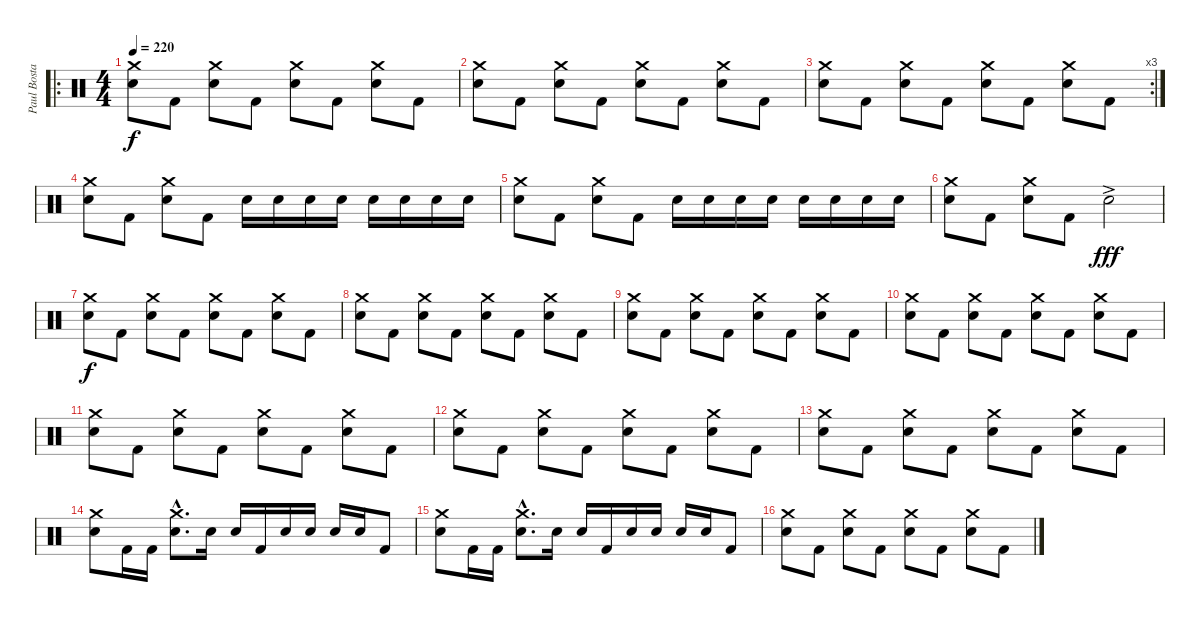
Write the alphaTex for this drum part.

\track ("Paul Bostaph" "Paul Bosta") {instrument percussion}
\staff {score}
\articulation defaults
\ro
\ts (4 4)
\tempo 220
\clef neutral
\ks c
("Snare (hit) 2" "Crash medium (hit)").8{dy f} "Kick (hit) 2".8 ("Snare (hit) 2" "Crash medium (hit)").8 "Kick (hit) 2".8 ("Snare (hit) 2" "Crash medium (hit)").8 "Kick (hit) 2".8 ("Snare (hit) 2" "Crash medium (hit)").8 "Kick (hit) 2".8 |
("Snare (hit) 2" "Crash medium (hit)").8 "Kick (hit) 2".8 ("Snare (hit) 2" "Crash medium (hit)").8 "Kick (hit) 2".8 ("Snare (hit) 2" "Crash medium (hit)").8 "Kick (hit) 2".8 ("Snare (hit) 2" "Crash medium (hit)").8 "Kick (hit) 2".8 |
\rc 3
("Snare (hit) 2" "Crash medium (hit)").8 "Kick (hit) 2".8 ("Snare (hit) 2" "Crash medium (hit)").8 "Kick (hit) 2".8 ("Snare (hit) 2" "Crash medium (hit)").8 "Kick (hit) 2".8 ("Snare (hit) 2" "Crash medium (hit)").8 "Kick (hit) 2".8 |
("Snare (hit) 2" "Crash medium (hit)").8 "Kick (hit) 2".8 ("Snare (hit) 2" "Crash medium (hit)").8 "Kick (hit) 2".8 "Snare (hit) 2".16 "Snare (hit) 2".16 "Snare (hit) 2".16 "Snare (hit) 2".16 "Snare (hit) 2".16 "Snare (hit) 2".16 "Snare (hit) 2".16 "Snare (hit) 2".16 |
("Snare (hit) 2" "Crash medium (hit)").8 "Kick (hit) 2".8 ("Snare (hit) 2" "Crash medium (hit)").8 "Kick (hit) 2".8 "Snare (hit) 2".16 "Snare (hit) 2".16 "Snare (hit) 2".16 "Snare (hit) 2".16 "Snare (hit) 2".16 "Snare (hit) 2".16 "Snare (hit) 2".16 "Snare (hit) 2".16 |
("Snare (hit) 2" "Crash medium (hit)").8 "Kick (hit) 2".8 ("Snare (hit) 2" "Crash medium (hit)").8 "Kick (hit) 2".8 "Snare (hit) 2"{ac}.2{dy fff} |
("Snare (hit) 2" "Crash medium (hit)").8{dy f} "Kick (hit) 2".8 ("Snare (hit) 2" "Crash medium (hit)").8 "Kick (hit) 2".8 ("Snare (hit) 2" "Crash medium (hit)").8 "Kick (hit) 2".8 ("Snare (hit) 2" "Crash medium (hit)").8 "Kick (hit) 2".8 |
("Snare (hit) 2" "Crash medium (hit)").8 "Kick (hit) 2".8 ("Snare (hit) 2" "Crash medium (hit)").8 "Kick (hit) 2".8 ("Snare (hit) 2" "Crash medium (hit)").8 "Kick (hit) 2".8 ("Snare (hit) 2" "Crash medium (hit)").8 "Kick (hit) 2".8 |
("Snare (hit) 2" "Crash medium (hit)").8 "Kick (hit) 2".8 ("Snare (hit) 2" "Crash medium (hit)").8 "Kick (hit) 2".8 ("Snare (hit) 2" "Crash medium (hit)").8 "Kick (hit) 2".8 ("Snare (hit) 2" "Crash medium (hit)").8 "Kick (hit) 2".8 |
("Snare (hit) 2" "Crash medium (hit)").8 "Kick (hit) 2".8 ("Snare (hit) 2" "Crash medium (hit)").8 "Kick (hit) 2".8 ("Snare (hit) 2" "Crash medium (hit)").8 "Kick (hit) 2".8 ("Snare (hit) 2" "Crash medium (hit)").8 "Kick (hit) 2".8 |
("Snare (hit) 2" "Crash medium (hit)").8 "Kick (hit) 2".8 ("Snare (hit) 2" "Crash medium (hit)").8 "Kick (hit) 2".8 ("Snare (hit) 2" "Crash medium (hit)").8 "Kick (hit) 2".8 ("Snare (hit) 2" "Crash medium (hit)").8 "Kick (hit) 2".8 |
("Snare (hit) 2" "Crash medium (hit)").8 "Kick (hit) 2".8 ("Snare (hit) 2" "Crash medium (hit)").8 "Kick (hit) 2".8 ("Snare (hit) 2" "Crash medium (hit)").8 "Kick (hit) 2".8 ("Snare (hit) 2" "Crash medium (hit)").8 "Kick (hit) 2".8 |
("Snare (hit) 2" "Crash medium (hit)").8 "Kick (hit) 2".8 ("Snare (hit) 2" "Crash medium (hit)").8 "Kick (hit) 2".8 ("Snare (hit) 2" "Crash medium (hit)").8 "Kick (hit) 2".8 ("Snare (hit) 2" "Crash medium (hit)").8 "Kick (hit) 2".8 |
("Snare (hit) 2" "Crash medium (hit)").8 "Kick (hit) 2".16 "Kick (hit) 2".16 ("Snare (hit) 2"{hac} "Crash medium (hit)"{hac}).8{d} "Snare (hit) 2".16 "Snare (hit) 2".16 "Kick (hit) 2".16 "Snare (hit) 2".16 "Snare (hit) 2".16 "Snare (hit) 2".16 "Snare (hit) 2".16 "Kick (hit) 2".8 |
("Snare (hit) 2" "Crash medium (hit)").8 "Kick (hit) 2".16 "Kick (hit) 2".16 ("Snare (hit) 2"{hac} "Crash medium (hit)"{hac}).8{d} "Snare (hit) 2".16 "Snare (hit) 2".16 "Kick (hit) 2".16 "Snare (hit) 2".16 "Snare (hit) 2".16 "Snare (hit) 2".16 "Snare (hit) 2".16 "Kick (hit) 2".8 |
("Snare (hit) 2" "Crash medium (hit)").8 "Kick (hit) 2".8 ("Snare (hit) 2" "Crash medium (hit)").8 "Kick (hit) 2".8 ("Snare (hit) 2" "Crash medium (hit)").8 "Kick (hit) 2".8 ("Snare (hit) 2" "Crash medium (hit)").8 "Kick (hit) 2".8
